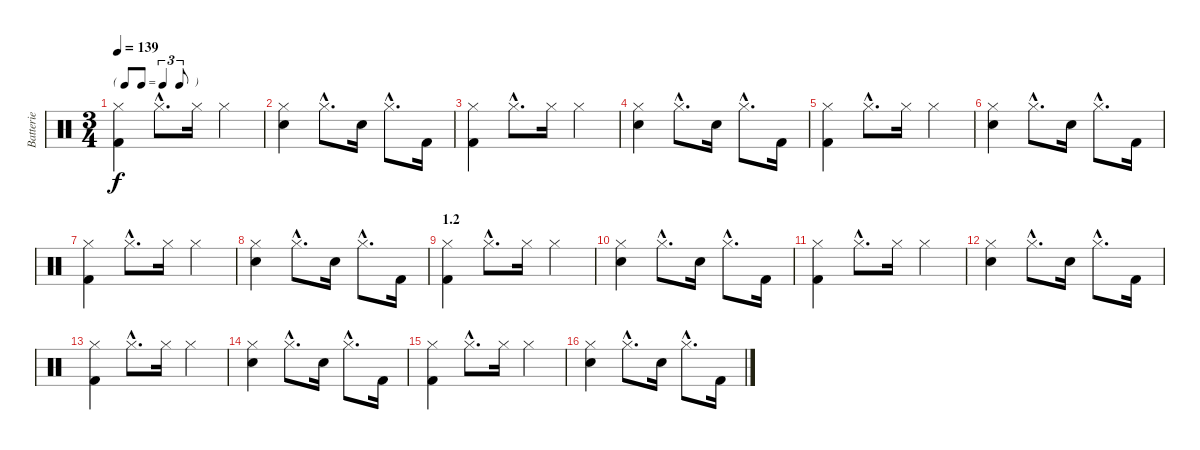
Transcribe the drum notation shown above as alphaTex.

\track ("Batterie" "Batterie") {instrument percussion}
\staff {score}
\articulation defaults
\ts (3 4)
\tf triplet8th
\tempo 139
\clef neutral
\ks c
("Hi-Hat (closed)" "Kick (hit) 2").4{dy f} "Hi-Hat (closed)"{hac}.8{d} "Hi-Hat (closed)".16 "Hi-Hat (closed)".4 |
("Hi-Hat (closed)" "Snare (hit) 2").4 "Hi-Hat (closed)"{hac}.8{d} "Snare (hit) 2".16 "Hi-Hat (closed)"{hac}.8{d} "Kick (hit) 2".16 |
("Hi-Hat (closed)" "Kick (hit) 2").4 "Hi-Hat (closed)"{hac}.8{d} "Hi-Hat (closed)".16 "Hi-Hat (closed)".4 |
("Hi-Hat (closed)" "Snare (hit) 2").4 "Hi-Hat (closed)"{hac}.8{d} "Snare (hit) 2".16 "Hi-Hat (closed)"{hac}.8{d} "Kick (hit) 2".16 |
("Hi-Hat (closed)" "Kick (hit) 2").4 "Hi-Hat (closed)"{hac}.8{d} "Hi-Hat (closed)".16 "Hi-Hat (closed)".4 |
("Hi-Hat (closed)" "Snare (hit) 2").4 "Hi-Hat (closed)"{hac}.8{d} "Snare (hit) 2".16 "Hi-Hat (closed)"{hac}.8{d} "Kick (hit) 2".16 |
("Hi-Hat (closed)" "Kick (hit) 2").4 "Hi-Hat (closed)"{hac}.8{d} "Hi-Hat (closed)".16 "Hi-Hat (closed)".4 |
("Hi-Hat (closed)" "Snare (hit) 2").4 "Hi-Hat (closed)"{hac}.8{d} "Snare (hit) 2".16 "Hi-Hat (closed)"{hac}.8{d} "Kick (hit) 2".16 |
\section ("" "1.2")
("Hi-Hat (closed)" "Kick (hit) 2").4 "Hi-Hat (closed)"{hac}.8{d} "Hi-Hat (closed)".16 "Hi-Hat (closed)".4 |
("Hi-Hat (closed)" "Snare (hit) 2").4 "Hi-Hat (closed)"{hac}.8{d} "Snare (hit) 2".16 "Hi-Hat (closed)"{hac}.8{d} "Kick (hit) 2".16 |
("Hi-Hat (closed)" "Kick (hit) 2").4 "Hi-Hat (closed)"{hac}.8{d} "Hi-Hat (closed)".16 "Hi-Hat (closed)".4 |
("Hi-Hat (closed)" "Snare (hit) 2").4 "Hi-Hat (closed)"{hac}.8{d} "Snare (hit) 2".16 "Hi-Hat (closed)"{hac}.8{d} "Kick (hit) 2".16 |
("Hi-Hat (closed)" "Kick (hit) 2").4 "Hi-Hat (closed)"{hac}.8{d} "Hi-Hat (closed)".16 "Hi-Hat (closed)".4 |
("Hi-Hat (closed)" "Snare (hit) 2").4 "Hi-Hat (closed)"{hac}.8{d} "Snare (hit) 2".16 "Hi-Hat (closed)"{hac}.8{d} "Kick (hit) 2".16 |
("Hi-Hat (closed)" "Kick (hit) 2").4 "Hi-Hat (closed)"{hac}.8{d} "Hi-Hat (closed)".16 "Hi-Hat (closed)".4 |
("Hi-Hat (closed)" "Snare (hit) 2").4 "Hi-Hat (closed)"{hac}.8{d} "Snare (hit) 2".16 "Hi-Hat (closed)"{hac}.8{d} "Kick (hit) 2".16
